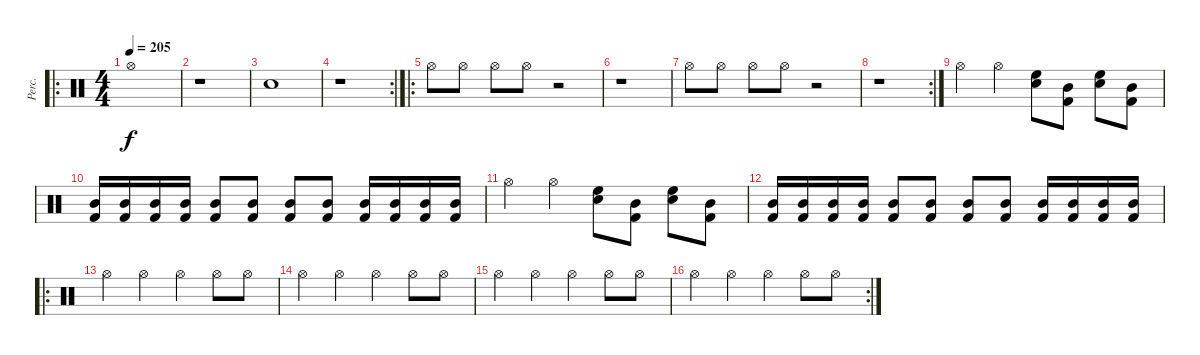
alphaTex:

\track ("Perc." "Perc.") {instrument percussion}
\staff {score}
\articulation defaults
\ro
\ts (4 4)
\tempo 205
\clef neutral
\ks c "Hi-Hat (open)".1{dy f}
|
r.1 |
"Snare (hit) 2".1 |
\rc 2
r.1 |
\ro "Hi-Hat (open)".8 "Hi-Hat (open)".8 "Hi-Hat (open)".8 "Hi-Hat (open)".8
r.2 |
r.1 |
"Hi-Hat (open)".8 "Hi-Hat (open)".8 "Hi-Hat (open)".8 "Hi-Hat (open)".8 r.2 |
\rc 2
r.1 |
"Hi-Hat (open)".4 "Hi-Hat (open)".4 ("High Floor Tom (hit)" "Snare (hit) 2").8 ("Mid Tom (hit)" "Kick (hit) 2").8 ("High Floor Tom (hit)" "Snare (hit) 2").8 ("Mid Tom (hit)" "Kick (hit) 2").8 |
("Mid Tom (hit)" "Kick (hit) 2").16 ("Mid Tom (hit)" "Kick (hit) 2").16 ("Mid Tom (hit)" "Kick (hit) 2").16 ("Mid Tom (hit)" "Kick (hit) 2").16 ("Mid Tom (hit)" "Kick (hit) 2").8 ("Mid Tom (hit)" "Kick (hit) 2").8 ("Mid Tom (hit)" "Kick (hit) 2").8 ("Mid Tom (hit)" "Kick (hit) 2").8 ("Mid Tom (hit)" "Kick (hit) 2").16 ("Mid Tom (hit)" "Kick (hit) 2").16 ("Mid Tom (hit)" "Kick (hit) 2").16 ("Mid Tom (hit)" "Kick (hit) 2").16 |
"Hi-Hat (open)".4 "Hi-Hat (open)".4 ("High Floor Tom (hit)" "Snare (hit) 2").8 ("Mid Tom (hit)" "Kick (hit) 2").8 ("High Floor Tom (hit)" "Snare (hit) 2").8 ("Mid Tom (hit)" "Kick (hit) 2").8 |
("Mid Tom (hit)" "Kick (hit) 2").16 ("Mid Tom (hit)" "Kick (hit) 2").16 ("Mid Tom (hit)" "Kick (hit) 2").16 ("Mid Tom (hit)" "Kick (hit) 2").16 ("Mid Tom (hit)" "Kick (hit) 2").8 ("Mid Tom (hit)" "Kick (hit) 2").8 ("Mid Tom (hit)" "Kick (hit) 2").8 ("Mid Tom (hit)" "Kick (hit) 2").8 ("Mid Tom (hit)" "Kick (hit) 2").16 ("Mid Tom (hit)" "Kick (hit) 2").16 ("Mid Tom (hit)" "Kick (hit) 2").16 ("Mid Tom (hit)" "Kick (hit) 2").16 |
\ro "Hi-Hat (open)".4 "Hi-Hat (open)".4 "Hi-Hat (open)".4 "Hi-Hat (open)".8 "Hi-Hat (open)".8
|
"Hi-Hat (open)".4 "Hi-Hat (open)".4 "Hi-Hat (open)".4 "Hi-Hat (open)".8 "Hi-Hat (open)".8 |
"Hi-Hat (open)".4 "Hi-Hat (open)".4 "Hi-Hat (open)".4 "Hi-Hat (open)".8 "Hi-Hat (open)".8 |
\rc 2 "Hi-Hat (open)".4 "Hi-Hat (open)".4 "Hi-Hat (open)".4 "Hi-Hat (open)".8 "Hi-Hat (open)".8
